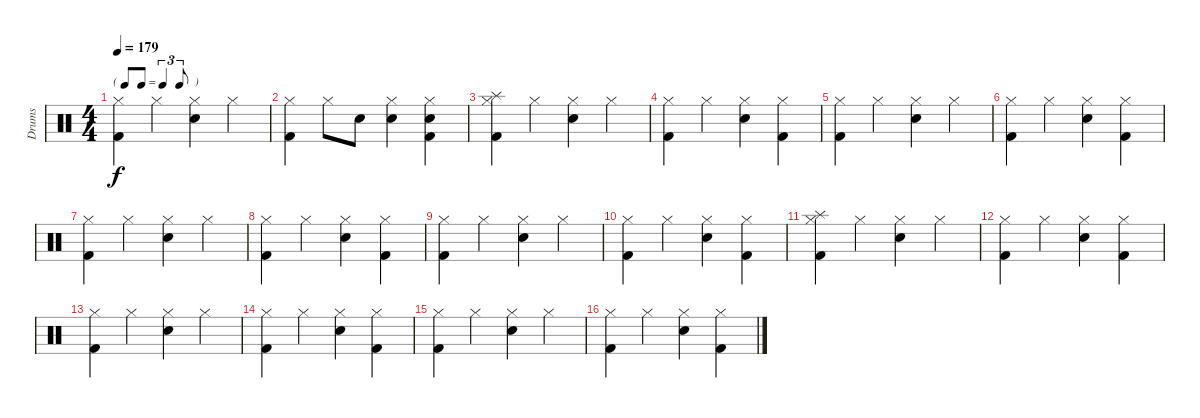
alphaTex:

\track ("Drums" "Drums") {instrument percussion}
\staff {score}
\articulation defaults
\ts (4 4)
\tf triplet8th
\tempo 179
\clef neutral
\ks c
("Hi-Hat (closed)" "Kick (hit) 2").4{dy f} "Hi-Hat (closed)".4 ("Hi-Hat (closed)" "Snare (hit) 2").4 "Hi-Hat (closed)".4 |
("Hi-Hat (closed)" "Kick (hit) 2").4 "Hi-Hat (closed)".8 "Snare (hit) 2".8 ("Hi-Hat (closed)" "Snare (hit) 2").4 ("Hi-Hat (closed)" "Snare (hit) 2" "Kick (hit) 2").4 |
("Hi-Hat (closed)" "Splash (hit)" "Kick (hit) 2").4 "Hi-Hat (closed)".4 ("Hi-Hat (closed)" "Snare (hit) 2").4 "Hi-Hat (closed)".4 |
("Hi-Hat (closed)" "Kick (hit) 2").4 "Hi-Hat (closed)".4 ("Hi-Hat (closed)" "Snare (hit) 2").4 ("Hi-Hat (closed)" "Kick (hit) 2").4 |
("Hi-Hat (closed)" "Kick (hit) 2").4 "Hi-Hat (closed)".4 ("Hi-Hat (closed)" "Snare (hit) 2").4 "Hi-Hat (closed)".4 |
("Hi-Hat (closed)" "Kick (hit) 2").4 "Hi-Hat (closed)".4 ("Hi-Hat (closed)" "Snare (hit) 2").4 ("Hi-Hat (closed)" "Kick (hit) 2").4 |
("Hi-Hat (closed)" "Kick (hit) 2").4 "Hi-Hat (closed)".4 ("Hi-Hat (closed)" "Snare (hit) 2").4 "Hi-Hat (closed)".4 |
("Hi-Hat (closed)" "Kick (hit) 2").4 "Hi-Hat (closed)".4 ("Hi-Hat (closed)" "Snare (hit) 2").4 ("Hi-Hat (closed)" "Kick (hit) 2").4 |
("Hi-Hat (closed)" "Kick (hit) 2").4 "Hi-Hat (closed)".4 ("Hi-Hat (closed)" "Snare (hit) 2").4 "Hi-Hat (closed)".4 |
("Hi-Hat (closed)" "Kick (hit) 2").4 "Hi-Hat (closed)".4 ("Hi-Hat (closed)" "Snare (hit) 2").4 ("Hi-Hat (closed)" "Kick (hit) 2").4 |
("Hi-Hat (closed)" "Splash (hit)" "Kick (hit) 2").4 "Hi-Hat (closed)".4 ("Hi-Hat (closed)" "Snare (hit) 2").4 "Hi-Hat (closed)".4 |
("Hi-Hat (closed)" "Kick (hit) 2").4 "Hi-Hat (closed)".4 ("Hi-Hat (closed)" "Snare (hit) 2").4 ("Hi-Hat (closed)" "Kick (hit) 2").4 |
("Hi-Hat (closed)" "Kick (hit) 2").4 "Hi-Hat (closed)".4 ("Hi-Hat (closed)" "Snare (hit) 2").4 "Hi-Hat (closed)".4 |
("Hi-Hat (closed)" "Kick (hit) 2").4 "Hi-Hat (closed)".4 ("Hi-Hat (closed)" "Snare (hit) 2").4 ("Hi-Hat (closed)" "Kick (hit) 2").4 |
("Hi-Hat (closed)" "Kick (hit) 2").4 "Hi-Hat (closed)".4 ("Hi-Hat (closed)" "Snare (hit) 2").4 "Hi-Hat (closed)".4 |
("Hi-Hat (closed)" "Kick (hit) 2").4 "Hi-Hat (closed)".4 ("Hi-Hat (closed)" "Snare (hit) 2").4 ("Hi-Hat (closed)" "Kick (hit) 2").4
